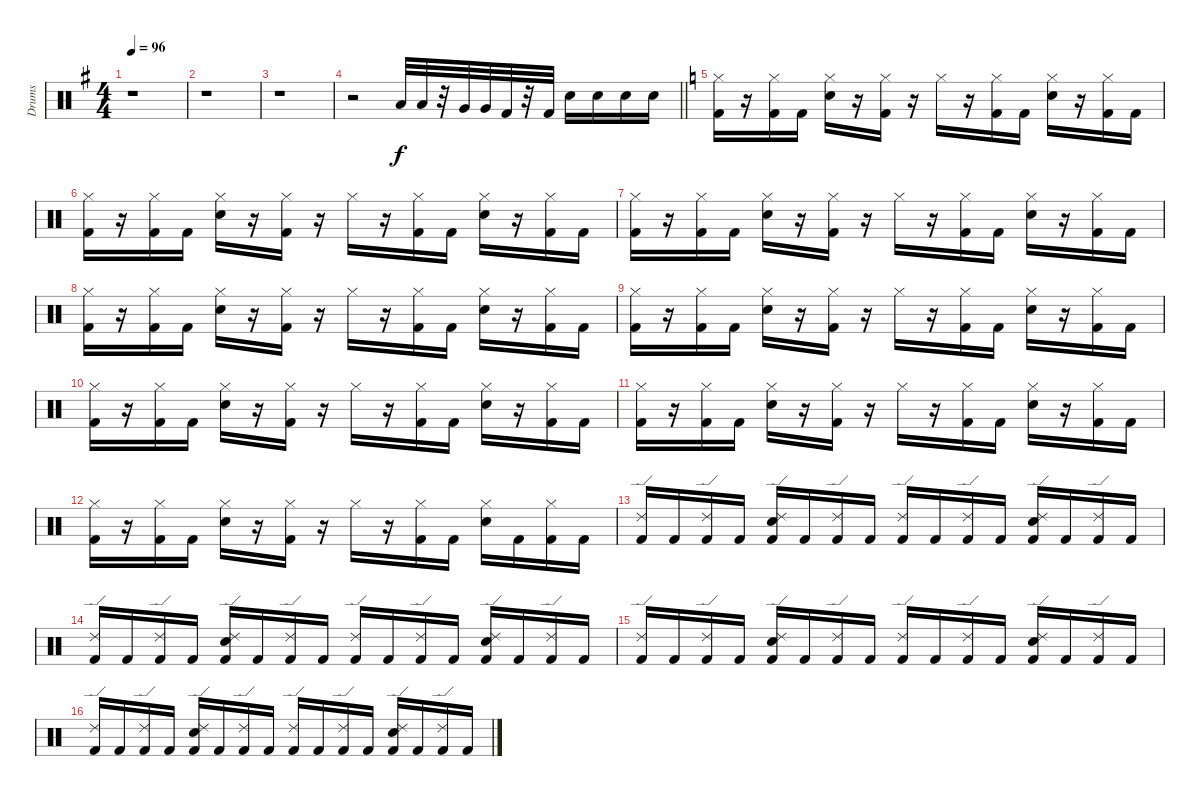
\track ("Drums" "Drums") {instrument percussion}
\staff {score}
\articulation defaults
\ts (4 4)
\tempo 96
\clef neutral
\ks g
r.1{dy f} |
r.1 |
r.1 |
\barLineRight lightlight
r.2 "Low Tom (hit)".32{volume 16} "Low Tom (hit)".32 r.32 "Very Low Tom (hit)".32 "Very Low Tom (hit)".32 "Kick (hit) 2".32 r.32 "Kick (hit) 2".32 "Electric Snare (hit)".16 "Electric Snare (hit)".16 "Electric Snare (hit)".16 "Electric Snare (hit)".16 |
\ks c
("Hi-Hat (closed)" "Kick (hit) 2").16 r.16 ("Hi-Hat (closed)" "Kick (hit) 2").16 "Kick (hit) 2".16 ("Hi-Hat (closed)" "Electric Snare (hit)").16 r.16 ("Hi-Hat (closed)" "Kick (hit) 2").16 r.16 "Hi-Hat (closed)".16 r.16 ("Hi-Hat (closed)" "Kick (hit) 2").16 "Kick (hit) 2".16 ("Hi-Hat (closed)" "Electric Snare (hit)").16 r.16 ("Kick (hit) 2" "Hi-Hat (closed)").16 "Kick (hit) 2".16 |
("Hi-Hat (closed)" "Kick (hit) 2").16 r.16 ("Hi-Hat (closed)" "Kick (hit) 2").16 "Kick (hit) 2".16 ("Hi-Hat (closed)" "Electric Snare (hit)").16 r.16 ("Hi-Hat (closed)" "Kick (hit) 2").16 r.16 "Hi-Hat (closed)".16 r.16 ("Hi-Hat (closed)" "Kick (hit) 2").16 "Kick (hit) 2".16 ("Hi-Hat (closed)" "Electric Snare (hit)").16 r.16 ("Kick (hit) 2" "Hi-Hat (closed)").16 "Kick (hit) 2".16 |
("Hi-Hat (closed)" "Kick (hit) 2").16 r.16 ("Hi-Hat (closed)" "Kick (hit) 2").16 "Kick (hit) 2".16 ("Hi-Hat (closed)" "Electric Snare (hit)").16 r.16 ("Hi-Hat (closed)" "Kick (hit) 2").16 r.16 "Hi-Hat (closed)".16 r.16 ("Hi-Hat (closed)" "Kick (hit) 2").16 "Kick (hit) 2".16 ("Hi-Hat (closed)" "Electric Snare (hit)").16 r.16 ("Kick (hit) 2" "Hi-Hat (closed)").16 "Kick (hit) 2".16 |
("Hi-Hat (closed)" "Kick (hit) 2").16 r.16 ("Hi-Hat (closed)" "Kick (hit) 2").16 "Kick (hit) 2".16 ("Hi-Hat (closed)" "Electric Snare (hit)").16 r.16 ("Hi-Hat (closed)" "Kick (hit) 2").16 r.16 "Hi-Hat (closed)".16 r.16 ("Hi-Hat (closed)" "Kick (hit) 2").16 "Kick (hit) 2".16 ("Hi-Hat (closed)" "Electric Snare (hit)").16 r.16 ("Kick (hit) 2" "Hi-Hat (closed)").16 "Kick (hit) 2".16 |
("Hi-Hat (closed)" "Kick (hit) 2").16 r.16 ("Hi-Hat (closed)" "Kick (hit) 2").16 "Kick (hit) 2".16 ("Hi-Hat (closed)" "Electric Snare (hit)").16 r.16 ("Hi-Hat (closed)" "Kick (hit) 2").16 r.16 "Hi-Hat (closed)".16 r.16 ("Hi-Hat (closed)" "Kick (hit) 2").16 "Kick (hit) 2".16 ("Hi-Hat (closed)" "Electric Snare (hit)").16 r.16 ("Kick (hit) 2" "Hi-Hat (closed)").16 "Kick (hit) 2".16 |
("Hi-Hat (closed)" "Kick (hit) 2").16 r.16 ("Hi-Hat (closed)" "Kick (hit) 2").16 "Kick (hit) 2".16 ("Hi-Hat (closed)" "Electric Snare (hit)").16 r.16 ("Hi-Hat (closed)" "Kick (hit) 2").16 r.16 "Hi-Hat (closed)".16 r.16 ("Hi-Hat (closed)" "Kick (hit) 2").16 "Kick (hit) 2".16 ("Hi-Hat (closed)" "Electric Snare (hit)").16 r.16 ("Kick (hit) 2" "Hi-Hat (closed)").16 "Kick (hit) 2".16 |
("Hi-Hat (closed)" "Kick (hit) 2").16 r.16 ("Hi-Hat (closed)" "Kick (hit) 2").16 "Kick (hit) 2".16 ("Hi-Hat (closed)" "Electric Snare (hit)").16 r.16 ("Hi-Hat (closed)" "Kick (hit) 2").16 r.16 "Hi-Hat (closed)".16 r.16 ("Hi-Hat (closed)" "Kick (hit) 2").16 "Kick (hit) 2".16 ("Hi-Hat (closed)" "Electric Snare (hit)").16 r.16 ("Kick (hit) 2" "Hi-Hat (closed)").16 "Kick (hit) 2".16 |
("Hi-Hat (closed)" "Kick (hit) 2").16 r.16 ("Hi-Hat (closed)" "Kick (hit) 2").16 "Kick (hit) 2".16 ("Hi-Hat (closed)" "Electric Snare (hit)").16 r.16 ("Hi-Hat (closed)" "Kick (hit) 2").16 r.16 "Hi-Hat (closed)".16 r.16 ("Hi-Hat (closed)" "Kick (hit) 2").16 "Kick (hit) 2".16 ("Hi-Hat (closed)" "Electric Snare (hit)").16 "Kick (hit) 2".16 ("Kick (hit) 2" "Hi-Hat (closed)").16 "Kick (hit) 2".16 |
("Ride (edge) 2" "Kick (hit) 2").16 "Kick (hit) 2".16 ("Ride (edge) 2" "Kick (hit) 2").16 "Kick (hit) 2".16 ("Ride (edge) 2" "Electric Snare (hit)" "Kick (hit) 2").16 "Kick (hit) 2".16 ("Ride (edge) 2" "Kick (hit) 2").16 "Kick (hit) 2".16 ("Ride (edge) 2" "Kick (hit) 2").16 "Kick (hit) 2".16 ("Ride (edge) 2" "Kick (hit) 2").16 "Kick (hit) 2".16 ("Ride (edge) 2" "Electric Snare (hit)" "Kick (hit) 2").16 "Kick (hit) 2".16 ("Ride (edge) 2" "Kick (hit) 2").16 "Kick (hit) 2".16 |
("Ride (edge) 2" "Kick (hit) 2").16 "Kick (hit) 2".16 ("Ride (edge) 2" "Kick (hit) 2").16 "Kick (hit) 2".16 ("Ride (edge) 2" "Electric Snare (hit)" "Kick (hit) 2").16 "Kick (hit) 2".16 ("Ride (edge) 2" "Kick (hit) 2").16 "Kick (hit) 2".16 ("Ride (edge) 2" "Kick (hit) 2").16 "Kick (hit) 2".16 ("Ride (edge) 2" "Kick (hit) 2").16 "Kick (hit) 2".16 ("Ride (edge) 2" "Electric Snare (hit)" "Kick (hit) 2").16 "Kick (hit) 2".16 ("Ride (edge) 2" "Kick (hit) 2").16 "Kick (hit) 2".16 |
("Ride (edge) 2" "Kick (hit) 2").16 "Kick (hit) 2".16 ("Ride (edge) 2" "Kick (hit) 2").16 "Kick (hit) 2".16 ("Ride (edge) 2" "Electric Snare (hit)" "Kick (hit) 2").16 "Kick (hit) 2".16 ("Ride (edge) 2" "Kick (hit) 2").16 "Kick (hit) 2".16 ("Ride (edge) 2" "Kick (hit) 2").16 "Kick (hit) 2".16 ("Ride (edge) 2" "Kick (hit) 2").16 "Kick (hit) 2".16 ("Ride (edge) 2" "Electric Snare (hit)" "Kick (hit) 2").16 "Kick (hit) 2".16 ("Ride (edge) 2" "Kick (hit) 2").16 "Kick (hit) 2".16 |
("Ride (edge) 2" "Kick (hit) 2").16 "Kick (hit) 2".16 ("Ride (edge) 2" "Kick (hit) 2").16 "Kick (hit) 2".16 ("Ride (edge) 2" "Electric Snare (hit)" "Kick (hit) 2").16 "Kick (hit) 2".16 ("Ride (edge) 2" "Kick (hit) 2").16 "Kick (hit) 2".16 ("Ride (edge) 2" "Kick (hit) 2").16 "Kick (hit) 2".16 ("Ride (edge) 2" "Kick (hit) 2").16 "Kick (hit) 2".16 ("Ride (edge) 2" "Electric Snare (hit)" "Kick (hit) 2").16 "Kick (hit) 2".16 ("Ride (edge) 2" "Kick (hit) 2").16 "Kick (hit) 2".16
